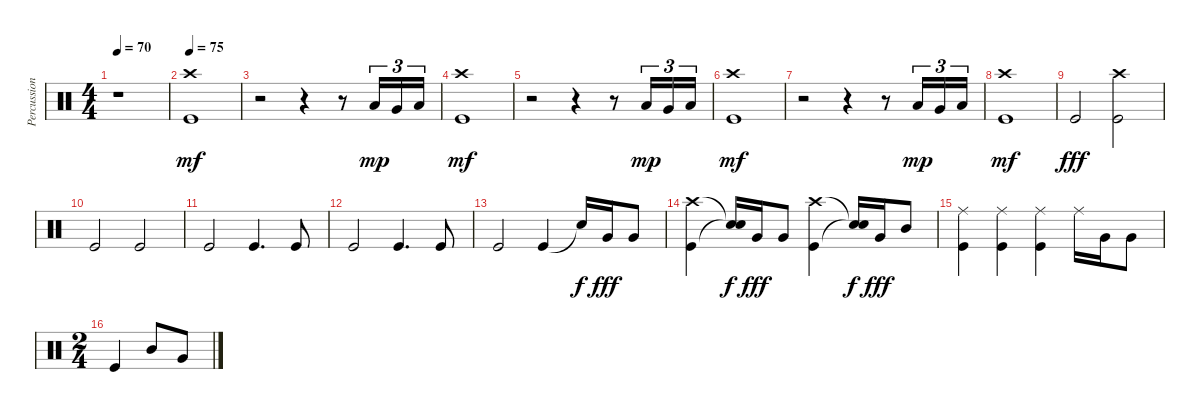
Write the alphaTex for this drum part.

\track ("Percussion" "Percussion") {instrument percussion}
\staff {score}
\articulation defaults
\ts (4 4)
\tempo 70
\clef neutral
\ks c
r.1{dy f} |
\tempo 75
("Crash high (hit)" "Kick (hit)").1{dy mf} |
r.2 r.4 r.8 "Low Tom (hit)".16{tu (3 2) dy mp} "Very Low Tom (hit)".16{tu (3 2)} "Low Floor Tom (hit)".16{tu (3 2)} |
("Crash high (hit)" "Kick (hit)").1{dy mf} |
r.2 r.4 r.8 "Low Tom (hit)".16{tu (3 2) dy mp} "Very Low Tom (hit)".16{tu (3 2)} "Low Floor Tom (hit)".16{tu (3 2)} |
("Crash high (hit)" "Kick (hit)").1{dy mf} |
r.2 r.4 r.8 "Low Tom (hit)".16{tu (3 2) dy mp} "Very Low Tom (hit)".16{tu (3 2)} "Low Floor Tom (hit)".16{tu (3 2)} |
("Crash high (hit)" "Kick (hit)").1{dy mf} |
"Kick (hit)".2{dy fff} ("Crash high (hit)" "Kick (hit)").2 |
"Kick (hit)".2 "Kick (hit)".2 |
"Kick (hit)".2 "Kick (hit)".4{d} "Kick (hit)".8 |
"Kick (hit)".2 "Kick (hit)".4{d} "Kick (hit)".8 |
"Kick (hit)".2 "Kick (hit)".4 "Snare (hit)"{t}.16{dy f} "Very Low Tom (hit)".16{dy fff} "Very Low Tom (hit)".8 |
("Crash high (hit)" "Kick (hit)").4 ("Snare (hit)"{t} "Snare (hit)"{t}).16{dy f} "Very Low Tom (hit)".16{dy fff} "Very Low Tom (hit)".8 ("Crash high (hit)" "Kick (hit)").4 ("Snare (hit)"{t} "Snare (hit)"{t}).16{dy f} "Very Low Tom (hit)".16{dy fff} "Mid Tom (hit)".8 |
("Ride (middle)" "Kick (hit)").4 ("Ride (middle)" "Kick (hit)").4 ("Ride (middle)" "Kick (hit)").4 "Ride (middle)".16 "Very Low Tom (hit)".16 "Very Low Tom (hit)".8 |
\ts (2 4)
"Kick (hit)".4 "Mid Tom (hit)".8 "Very Low Tom (hit)".8
